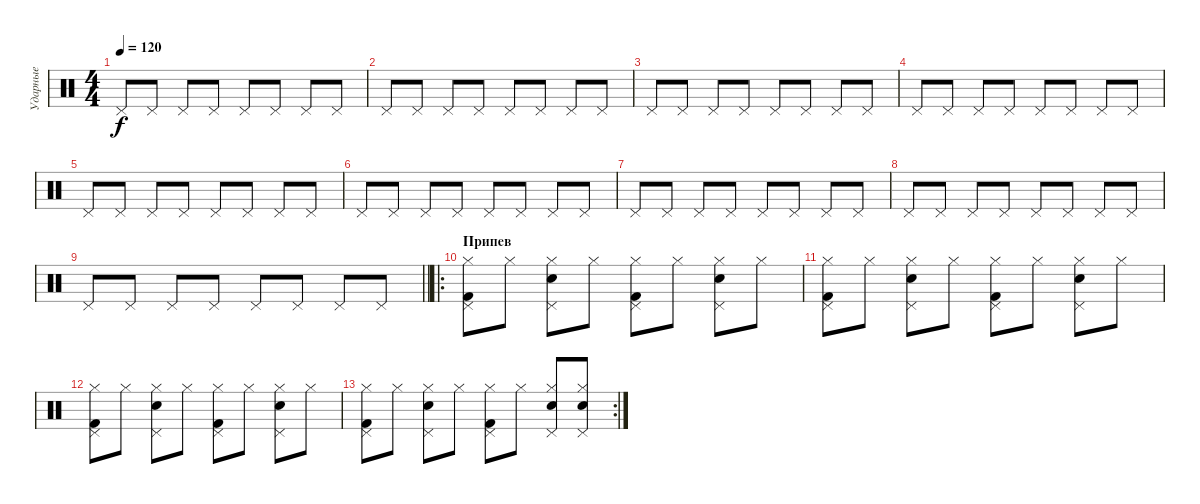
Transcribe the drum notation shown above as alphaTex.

\track ("Ударные" "Ударные") {instrument percussion}
\staff {score}
\articulation defaults
\ts (4 4)
\tempo 120
\clef neutral
\ks c "Pedal Hi-Hat (hit)".8{dy f} "Pedal Hi-Hat (hit)".8 "Pedal Hi-Hat (hit)".8 "Pedal Hi-Hat (hit)".8 "Pedal Hi-Hat (hit)".8 "Pedal Hi-Hat (hit)".8 "Pedal Hi-Hat (hit)".8 "Pedal Hi-Hat (hit)".8
|
"Pedal Hi-Hat (hit)".8 "Pedal Hi-Hat (hit)".8 "Pedal Hi-Hat (hit)".8 "Pedal Hi-Hat (hit)".8 "Pedal Hi-Hat (hit)".8 "Pedal Hi-Hat (hit)".8 "Pedal Hi-Hat (hit)".8 "Pedal Hi-Hat (hit)".8 |
"Pedal Hi-Hat (hit)".8 "Pedal Hi-Hat (hit)".8 "Pedal Hi-Hat (hit)".8 "Pedal Hi-Hat (hit)".8 "Pedal Hi-Hat (hit)".8 "Pedal Hi-Hat (hit)".8 "Pedal Hi-Hat (hit)".8 "Pedal Hi-Hat (hit)".8 |
"Pedal Hi-Hat (hit)".8 "Pedal Hi-Hat (hit)".8 "Pedal Hi-Hat (hit)".8 "Pedal Hi-Hat (hit)".8 "Pedal Hi-Hat (hit)".8 "Pedal Hi-Hat (hit)".8 "Pedal Hi-Hat (hit)".8 "Pedal Hi-Hat (hit)".8 |
"Pedal Hi-Hat (hit)".8 "Pedal Hi-Hat (hit)".8 "Pedal Hi-Hat (hit)".8 "Pedal Hi-Hat (hit)".8 "Pedal Hi-Hat (hit)".8 "Pedal Hi-Hat (hit)".8 "Pedal Hi-Hat (hit)".8 "Pedal Hi-Hat (hit)".8 |
"Pedal Hi-Hat (hit)".8 "Pedal Hi-Hat (hit)".8 "Pedal Hi-Hat (hit)".8 "Pedal Hi-Hat (hit)".8 "Pedal Hi-Hat (hit)".8 "Pedal Hi-Hat (hit)".8 "Pedal Hi-Hat (hit)".8 "Pedal Hi-Hat (hit)".8 |
"Pedal Hi-Hat (hit)".8 "Pedal Hi-Hat (hit)".8 "Pedal Hi-Hat (hit)".8 "Pedal Hi-Hat (hit)".8 "Pedal Hi-Hat (hit)".8 "Pedal Hi-Hat (hit)".8 "Pedal Hi-Hat (hit)".8 "Pedal Hi-Hat (hit)".8 |
"Pedal Hi-Hat (hit)".8 "Pedal Hi-Hat (hit)".8 "Pedal Hi-Hat (hit)".8 "Pedal Hi-Hat (hit)".8 "Pedal Hi-Hat (hit)".8 "Pedal Hi-Hat (hit)".8 "Pedal Hi-Hat (hit)".8 "Pedal Hi-Hat (hit)".8 |
\barLineRight lightlight "Pedal Hi-Hat (hit)".8 "Pedal Hi-Hat (hit)".8 "Pedal Hi-Hat (hit)".8 "Pedal Hi-Hat (hit)".8 "Pedal Hi-Hat (hit)".8 "Pedal Hi-Hat (hit)".8 "Pedal Hi-Hat (hit)".8 "Pedal Hi-Hat (hit)".8
|
\ro
\section ("" "Припев")
("Pedal Hi-Hat (hit)" "Hi-Hat (closed)" "Kick (hit) 2").8 "Hi-Hat (closed)".8 ("Pedal Hi-Hat (hit)" "Hi-Hat (closed)" "Snare (hit) 2").8 "Hi-Hat (closed)".8 ("Pedal Hi-Hat (hit)" "Hi-Hat (closed)" "Kick (hit) 2").8 "Hi-Hat (closed)".8 ("Pedal Hi-Hat (hit)" "Hi-Hat (closed)" "Snare (hit) 2").8 "Hi-Hat (closed)".8 |
("Pedal Hi-Hat (hit)" "Hi-Hat (closed)" "Kick (hit) 2").8 "Hi-Hat (closed)".8 ("Pedal Hi-Hat (hit)" "Hi-Hat (closed)" "Snare (hit) 2").8 "Hi-Hat (closed)".8 ("Pedal Hi-Hat (hit)" "Hi-Hat (closed)" "Kick (hit) 2").8 "Hi-Hat (closed)".8 ("Pedal Hi-Hat (hit)" "Hi-Hat (closed)" "Snare (hit) 2").8 "Hi-Hat (closed)".8 |
("Pedal Hi-Hat (hit)" "Hi-Hat (closed)" "Kick (hit) 2").8 "Hi-Hat (closed)".8 ("Pedal Hi-Hat (hit)" "Hi-Hat (closed)" "Snare (hit) 2").8 "Hi-Hat (closed)".8 ("Pedal Hi-Hat (hit)" "Hi-Hat (closed)" "Kick (hit) 2").8 "Hi-Hat (closed)".8 ("Pedal Hi-Hat (hit)" "Hi-Hat (closed)" "Snare (hit) 2").8 "Hi-Hat (closed)".8 |
\rc 2
("Pedal Hi-Hat (hit)" "Hi-Hat (closed)" "Kick (hit) 2").8 "Hi-Hat (closed)".8 ("Pedal Hi-Hat (hit)" "Hi-Hat (closed)" "Snare (hit) 2").8 "Hi-Hat (closed)".8 ("Pedal Hi-Hat (hit)" "Hi-Hat (closed)" "Kick (hit) 2").8 "Hi-Hat (closed)".8 ("Pedal Hi-Hat (hit)" "Hi-Hat (closed)" "Snare (hit) 2").8 ("Pedal Hi-Hat (hit)" "Hi-Hat (closed)" "Snare (hit) 2").8
